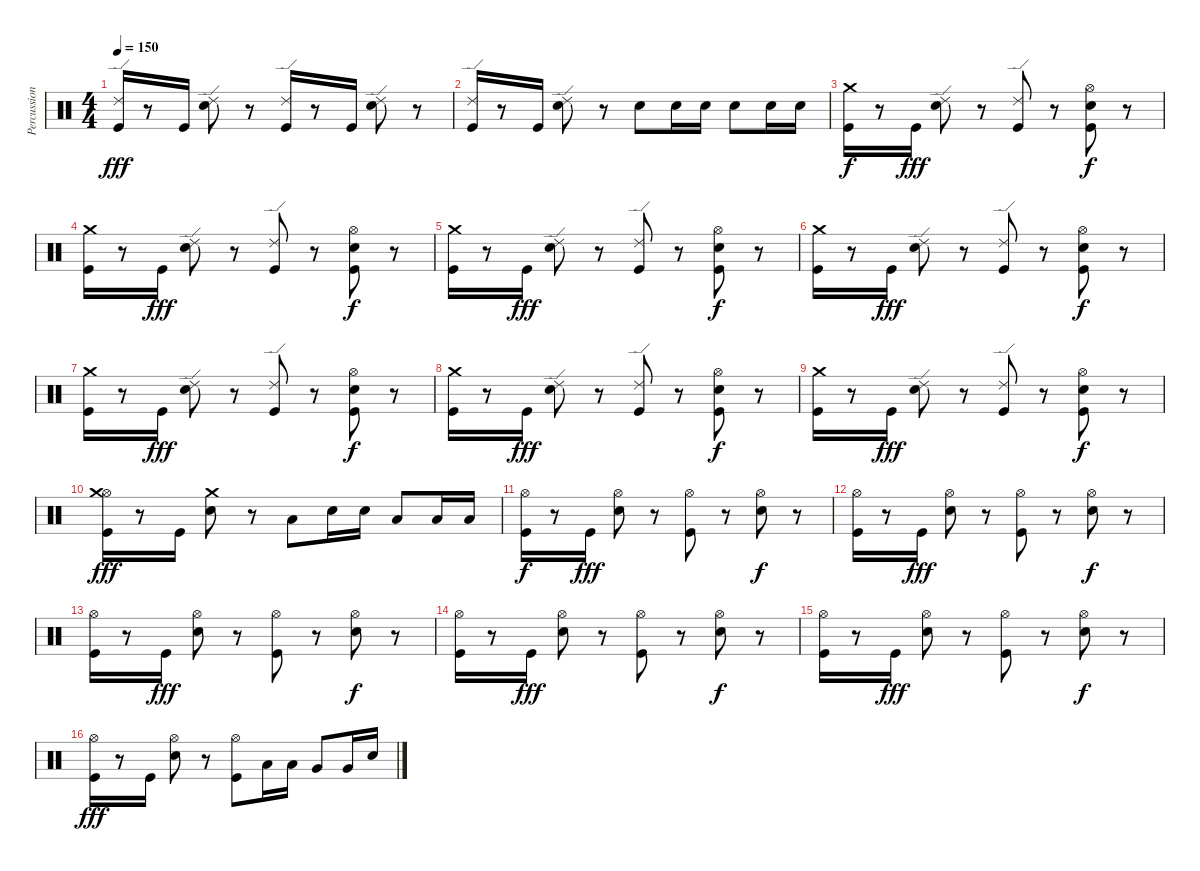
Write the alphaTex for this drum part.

\track ("Percussion" "Percussion") {instrument percussion}
\staff {score}
\articulation defaults
\ts (4 4)
\tempo 150
\clef neutral
\ks c
("Kick (hit)" "Ride (edge) 2").16{dy fff} r.8 "Kick (hit)".16 ("Electric Snare (hit)" "Ride (edge) 2").8 r.8 ("Kick (hit)" "Ride (edge) 2").16 r.8 "Kick (hit)".16 ("Electric Snare (hit)" "Ride (edge) 2").8 r.8 |
("Kick (hit)" "Ride (edge) 2").16 r.8 "Kick (hit)".16 ("Ride (edge) 2" "Electric Snare (hit)").8 r.8 "Electric Snare (hit)".8 "Electric Snare (hit)".16 "Electric Snare (hit)".16 "Electric Snare (hit)".8 "Electric Snare (hit)".16 "Electric Snare (hit)".16 |
("Kick (hit)" "Crash medium (hit)").16{dy f} r.8 "Kick (hit)".16{dy fff} ("Electric Snare (hit)" "Ride (edge) 2").8 r.8 ("Kick (hit)" "Ride (edge) 2").8 r.8 ("Kick (hit)" "Electric Snare (hit)" "Hi-Hat (open)").8{dy f} r.8 |
("Kick (hit)" "Crash medium (hit)").16 r.8 "Kick (hit)".16{dy fff} ("Electric Snare (hit)" "Ride (edge) 2").8 r.8 ("Kick (hit)" "Ride (edge) 2").8 r.8 ("Kick (hit)" "Electric Snare (hit)" "Hi-Hat (open)").8{dy f} r.8 |
("Kick (hit)" "Crash medium (hit)").16 r.8 "Kick (hit)".16{dy fff} ("Electric Snare (hit)" "Ride (edge) 2").8 r.8 ("Kick (hit)" "Ride (edge) 2").8 r.8 ("Kick (hit)" "Electric Snare (hit)" "Hi-Hat (open)").8{dy f} r.8 |
("Kick (hit)" "Crash medium (hit)").16 r.8 "Kick (hit)".16{dy fff} ("Electric Snare (hit)" "Ride (edge) 2").8 r.8 ("Kick (hit)" "Ride (edge) 2").8 r.8 ("Kick (hit)" "Electric Snare (hit)" "Hi-Hat (open)").8{dy f} r.8 |
("Kick (hit)" "Crash medium (hit)").16 r.8 "Kick (hit)".16{dy fff} ("Electric Snare (hit)" "Ride (edge) 2").8 r.8 ("Kick (hit)" "Ride (edge) 2").8 r.8 ("Kick (hit)" "Electric Snare (hit)" "Hi-Hat (open)").8{dy f} r.8 |
("Kick (hit)" "Crash medium (hit)").16 r.8 "Kick (hit)".16{dy fff} ("Electric Snare (hit)" "Ride (edge) 2").8 r.8 ("Kick (hit)" "Ride (edge) 2").8 r.8 ("Kick (hit)" "Electric Snare (hit)" "Hi-Hat (open)").8{dy f} r.8 |
("Kick (hit)" "Crash medium (hit)").16 r.8 "Kick (hit)".16{dy fff} ("Electric Snare (hit)" "Ride (edge) 2").8 r.8 ("Kick (hit)" "Ride (edge) 2").8 r.8 ("Kick (hit)" "Electric Snare (hit)" "Hi-Hat (open)").8{dy f} r.8 |
("Hi-Hat (open)" "Kick (hit)" "Crash medium (hit)").16{dy fff} r.8 "Kick (hit)".16 ("Crash medium (hit)" "Electric Snare (hit)").8 r.8 "Low Tom (hit)".8 "Electric Snare (hit)".16 "Electric Snare (hit)".16 "Low Tom (hit)".8 "Low Tom (hit)".16 "Low Tom (hit)".16 |
("Kick (hit)" "Hi-Hat (open)").16{dy f} r.8 "Kick (hit)".16{dy fff} ("Electric Snare (hit)" "Hi-Hat (open)").8 r.8 ("Kick (hit)" "Hi-Hat (open)").8 r.8 ("Electric Snare (hit)" "Hi-Hat (open)").8{dy f} r.8 |
("Kick (hit)" "Hi-Hat (open)").16 r.8 "Kick (hit)".16{dy fff} ("Electric Snare (hit)" "Hi-Hat (open)").8 r.8 ("Kick (hit)" "Hi-Hat (open)").8 r.8 ("Electric Snare (hit)" "Hi-Hat (open)").8{dy f} r.8 |
("Kick (hit)" "Hi-Hat (open)").16 r.8 "Kick (hit)".16{dy fff} ("Electric Snare (hit)" "Hi-Hat (open)").8 r.8 ("Kick (hit)" "Hi-Hat (open)").8 r.8 ("Electric Snare (hit)" "Hi-Hat (open)").8{dy f} r.8 |
("Kick (hit)" "Hi-Hat (open)").16 r.8 "Kick (hit)".16{dy fff} ("Electric Snare (hit)" "Hi-Hat (open)").8 r.8 ("Kick (hit)" "Hi-Hat (open)").8 r.8 ("Electric Snare (hit)" "Hi-Hat (open)").8{dy f} r.8 |
("Kick (hit)" "Hi-Hat (open)").16 r.8 "Kick (hit)".16{dy fff} ("Electric Snare (hit)" "Hi-Hat (open)").8 r.8 ("Kick (hit)" "Hi-Hat (open)").8 r.8 ("Electric Snare (hit)" "Hi-Hat (open)").8{dy f} r.8 |
("Kick (hit)" "Hi-Hat (open)").16{dy fff} r.8 "Kick (hit)".16 ("Electric Snare (hit)" "Hi-Hat (open)").8 r.8 ("Hi-Hat (open)" "Kick (hit)").8 "Low Tom (hit)".16 "Low Tom (hit)".16 "Very Low Tom (hit)".8 "Very Low Tom (hit)".16 "Electric Snare (hit)".16
